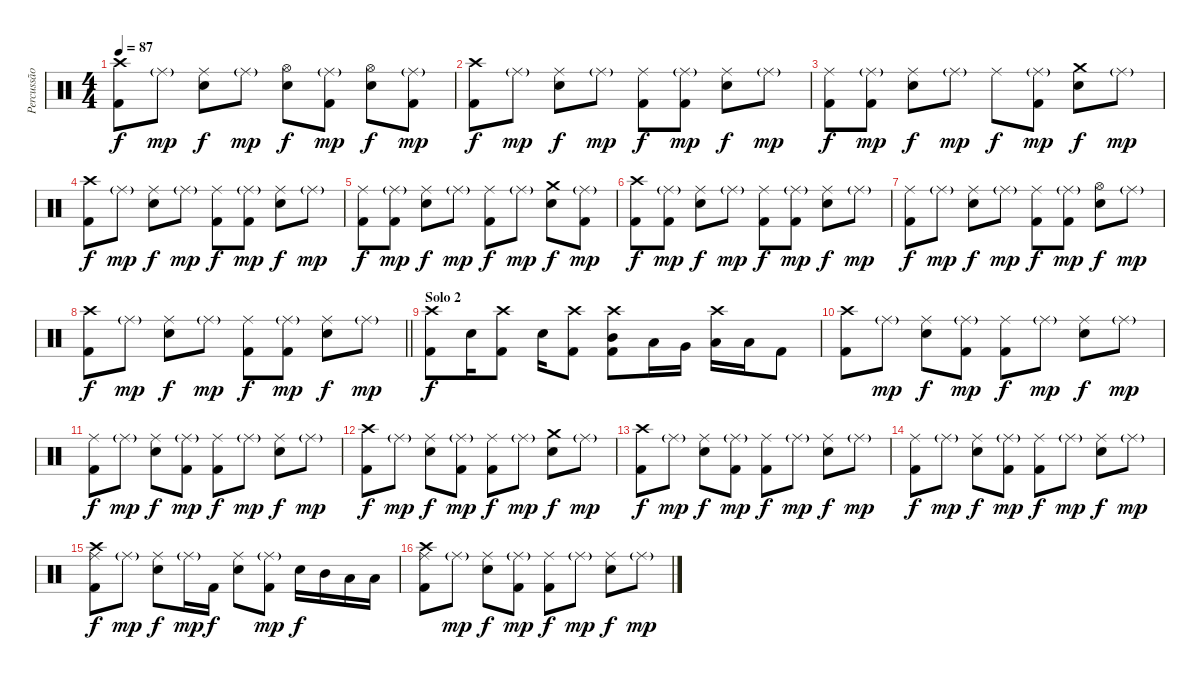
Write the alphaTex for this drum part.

\track ("Percussão" "Percussão") {instrument percussion}
\staff {score}
\articulation defaults
\ts (4 4)
\tempo 87
\clef neutral
\ks c
("Crash high (hit)" "Kick (hit) 2").8{dy f} "Ride (middle)"{g}.8{dy mp} ("Ride (middle)" "Snare (hit) 2").8{dy f} "Ride (middle)"{g}.8{dy mp} ("Hi-Hat (open)" "Snare (hit) 2").8{dy f} ("Ride (middle)"{g} "Kick (hit) 2").8{dy mp} ("Hi-Hat (open)" "Snare (hit) 2").8{dy f} ("Ride (middle)"{g} "Kick (hit) 2").8{dy mp} |
("Crash high (hit)" "Kick (hit) 2").8{dy f} "Ride (middle)"{g}.8{dy mp} ("Ride (middle)" "Snare (hit) 2").8{dy f} "Ride (middle)"{g}.8{dy mp} ("Ride (middle)" "Kick (hit) 2").8{dy f} ("Ride (middle)"{g} "Kick (hit) 2").8{dy mp} ("Ride (middle)" "Snare (hit) 2").8{dy f} "Ride (middle)"{g}.8{dy mp} |
("Ride (middle)" "Kick (hit) 2").8{dy f} ("Ride (middle)"{g} "Kick (hit) 2").8{dy mp} ("Ride (middle)" "Snare (hit) 2").8{dy f} "Ride (middle)"{g}.8{dy mp} "Ride (middle)".8{dy f} ("Ride (middle)"{g} "Kick (hit) 2").8{dy mp} ("Crash medium (hit)" "Snare (hit) 2").8{dy f} "Ride (middle)"{g}.8{dy mp} |
("Crash high (hit)" "Kick (hit) 2").8{dy f} "Ride (middle)"{g}.8{dy mp} ("Ride (middle)" "Snare (hit) 2").8{dy f} "Ride (middle)"{g}.8{dy mp} ("Ride (middle)" "Kick (hit) 2").8{dy f} ("Ride (middle)"{g} "Kick (hit) 2").8{dy mp} ("Ride (middle)" "Snare (hit) 2").8{dy f} "Ride (middle)"{g}.8{dy mp} |
("Ride (middle)" "Kick (hit) 2").8{dy f} ("Ride (middle)"{g} "Kick (hit) 2").8{dy mp} ("Ride (middle)" "Snare (hit) 2").8{dy f} "Ride (middle)"{g}.8{dy mp} ("Ride (middle)" "Kick (hit) 2").8{dy f} "Ride (middle)"{g}.8{dy mp} ("Crash medium (hit)" "Snare (hit) 2").8{dy f} ("Ride (middle)"{g} "Kick (hit) 2").8{dy mp} |
("Crash high (hit)" "Kick (hit) 2").8{dy f} ("Ride (middle)"{g} "Kick (hit) 2").8{dy mp} ("Ride (middle)" "Snare (hit) 2").8{dy f} "Ride (middle)"{g}.8{dy mp} ("Ride (middle)" "Kick (hit) 2").8{dy f} ("Ride (middle)"{g} "Kick (hit) 2").8{dy mp} ("Ride (middle)" "Snare (hit) 2").8{dy f} "Ride (middle)"{g}.8{dy mp} |
("Ride (middle)" "Kick (hit) 2").8{dy f} "Ride (middle)"{g}.8{dy mp} ("Ride (middle)" "Snare (hit) 2").8{dy f} "Ride (middle)"{g}.8{dy mp} ("Ride (middle)" "Kick (hit) 2").8{dy f} ("Ride (middle)"{g} "Kick (hit) 2").8{dy mp} ("Hi-Hat (open)" "Snare (hit) 2").8{dy f} "Ride (middle)"{g}.8{dy mp} |
\barLineRight lightlight
("Crash high (hit)" "Kick (hit) 2").8{dy f} "Ride (middle)"{g}.8{dy mp} ("Ride (middle)" "Snare (hit) 2").8{dy f} "Ride (middle)"{g}.8{dy mp} ("Ride (middle)" "Kick (hit) 2").8{dy f} ("Ride (middle)"{g} "Kick (hit) 2").8{dy mp} ("Ride (middle)" "Snare (hit) 2").8{dy f} "Ride (middle)"{g}.8{dy mp} |
\section ("" "Solo 2")
("Crash high (hit)" "Kick (hit) 2").8{dy f} "Snare (hit) 2".16 ("Crash high (hit)" "Kick (hit) 2").8 "Snare (hit) 2".16 ("Crash high (hit)" "Kick (hit) 2").8 ("Crash high (hit)" "Mid Tom (hit)" "Kick (hit) 2").8 "Low Tom (hit)".16 "Very Low Tom (hit)".16 ("Crash high (hit)" "Low Floor Tom (hit)").16 "Low Floor Tom (hit)".16 "Kick (hit) 2".8 |
("Crash high (hit)" "Kick (hit) 2").8 "Ride (middle)"{g}.8{dy mp} ("Ride (middle)" "Snare (hit) 2").8{dy f} ("Ride (middle)"{g} "Kick (hit) 2").8{dy mp} ("Ride (middle)" "Kick (hit) 2").8{dy f} "Ride (middle)"{g}.8{dy mp} ("Ride (middle)" "Snare (hit) 2").8{dy f} "Ride (middle)"{g}.8{dy mp} |
("Ride (middle)" "Kick (hit) 2").8{dy f} "Ride (middle)"{g}.8{dy mp} ("Ride (middle)" "Snare (hit) 2").8{dy f} ("Ride (middle)"{g} "Kick (hit) 2").8{dy mp} ("Ride (middle)" "Kick (hit) 2").8{dy f} "Ride (middle)"{g}.8{dy mp} ("Ride (middle)" "Snare (hit) 2").8{dy f} "Ride (middle)"{g}.8{dy mp} |
("Crash high (hit)" "Kick (hit) 2").8{dy f} "Ride (middle)"{g}.8{dy mp} ("Ride (middle)" "Snare (hit) 2").8{dy f} ("Ride (middle)"{g} "Kick (hit) 2").8{dy mp} ("Ride (middle)" "Kick (hit) 2").8{dy f} "Ride (middle)"{g}.8{dy mp} ("Crash medium (hit)" "Snare (hit) 2").8{dy f} "Ride (middle)"{g}.8{dy mp} |
("Crash high (hit)" "Kick (hit) 2").8{dy f} "Ride (middle)"{g}.8{dy mp} ("Ride (middle)" "Snare (hit) 2").8{dy f} ("Ride (middle)"{g} "Kick (hit) 2").8{dy mp} ("Ride (middle)" "Kick (hit) 2").8{dy f} "Ride (middle)"{g}.8{dy mp} ("Ride (middle)" "Snare (hit) 2").8{dy f} "Ride (middle)"{g}.8{dy mp} |
("Ride (middle)" "Kick (hit) 2").8{dy f} "Ride (middle)"{g}.8{dy mp} ("Ride (middle)" "Snare (hit) 2").8{dy f} ("Ride (middle)"{g} "Kick (hit) 2").8{dy mp} ("Ride (middle)" "Kick (hit) 2").8{dy f} "Ride (middle)"{g}.8{dy mp} ("Ride (middle)" "Snare (hit) 2").8{dy f} "Ride (middle)"{g}.8{dy mp} |
("Crash high (hit)" "Ride (middle)" "Kick (hit) 2").8{dy f} "Ride (middle)"{g}.8{dy mp} ("Ride (middle)" "Snare (hit) 2").8{dy f} "Ride (middle)"{g}.16{dy mp} "Kick (hit) 2".16{dy f} ("Ride (middle)" "Snare (hit) 2").8 ("Ride (middle)"{g} "Kick (hit) 2").8{dy mp} "Snare (hit) 2".16{dy f} "Mid Tom (hit)".16 "Low Tom (hit)".16 "Low Floor Tom (hit)".16 |
("Crash high (hit)" "Ride (middle)" "Kick (hit) 2").8 "Ride (middle)"{g}.8{dy mp} ("Ride (middle)" "Snare (hit) 2").8{dy f} ("Ride (middle)"{g} "Kick (hit) 2").8{dy mp} ("Ride (middle)" "Kick (hit) 2").8{dy f} "Ride (middle)"{g}.8{dy mp} ("Ride (middle)" "Snare (hit) 2").8{dy f} "Ride (middle)"{g}.8{dy mp}
